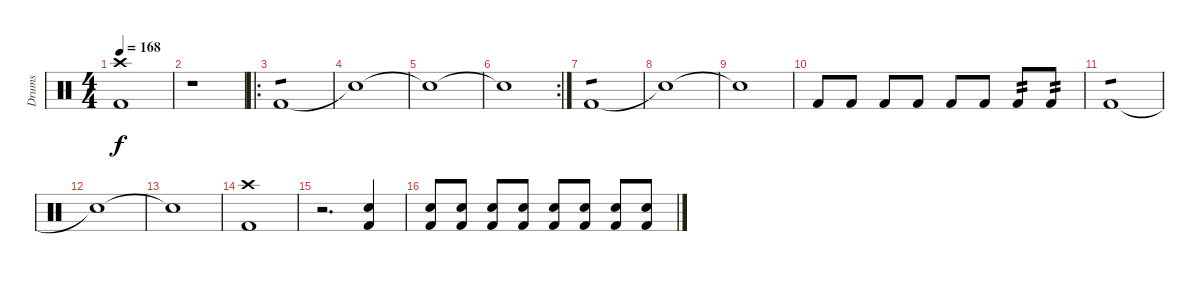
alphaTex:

\track ("Drums" "Drums") {instrument percussion}
\staff {score}
\articulation defaults
\ts (4 4)
\tempo 168
\clef neutral
\ks c
("Crash high (hit)" "Kick (hit) 2").1{dy f} |
r.1 |
\ro "Kick (hit) 2".1{tp 1}
|
"Snare (hit)"{t}.1 |
"Snare (hit)"{t}.1 |
\rc 2 "Snare (hit)"{t}.1
|
"Kick (hit) 2".1{tp 1} |
"Snare (hit)"{t}.1 |
"Snare (hit)"{t}.1 |
"Kick (hit) 2".8 "Kick (hit) 2".8 "Kick (hit) 2".8 "Kick (hit) 2".8 "Kick (hit) 2".8 "Kick (hit) 2".8 "Kick (hit) 2".8{tp 2} "Kick (hit) 2".8{tp 2} |
"Kick (hit) 2".1{tp 1} |
"Snare (hit)"{t}.1 |
"Snare (hit)"{t}.1 |
("Crash high (hit)" "Kick (hit) 2").1 |
r.2{d} ("Snare (hit) 2" "Kick (hit) 2").4 |
("Snare (hit) 2" "Kick (hit) 2").8 ("Snare (hit) 2" "Kick (hit) 2").8 ("Snare (hit) 2" "Kick (hit) 2").8 ("Snare (hit) 2" "Kick (hit) 2").8 ("Snare (hit) 2" "Kick (hit) 2").8 ("Snare (hit) 2" "Kick (hit) 2").8 ("Snare (hit) 2" "Kick (hit) 2").8 ("Snare (hit) 2" "Kick (hit) 2").8
